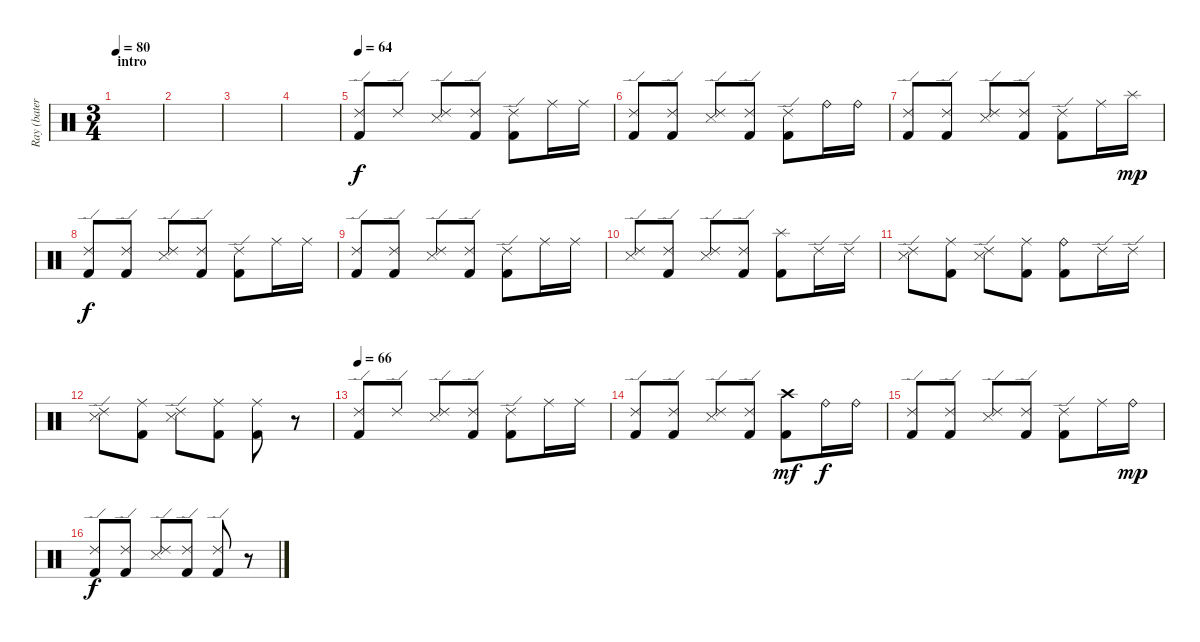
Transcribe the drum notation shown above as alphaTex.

\track ("Ray (batería)" "Ray (bater") {instrument percussion}
\staff {score}
\articulation defaults
\ts (3 4)
\section ("" "intro")
\tempo 80
\tempo 62
\tempo 80
\clef neutral
\ks c
|
|
|
|
\tempo 64
("Ride (edge) 2" "Kick (hit) 2").8{volume 12} "Ride (edge) 2".8 ("Ride (edge) 2" "Snare (side stick) 3").8 ("Ride (edge) 2" "Kick (hit) 2").8 ("Ride (edge) 2" "Kick (hit) 2").8 "Ride (middle)".16 "Ride (middle)".16 |
("Ride (edge) 2" "Kick (hit) 2").8 ("Ride (edge) 2" "Kick (hit) 2").8 ("Ride (edge) 2" "Snare (side stick) 3").8 ("Ride (edge) 2" "Kick (hit) 2").8 ("Ride (edge) 2" "Kick (hit) 2").8 "Ride (bell)".16 "Ride (bell)".16 |
("Ride (edge) 2" "Kick (hit) 2").8 ("Ride (edge) 2" "Kick (hit) 2").8 ("Ride (edge) 2" "Snare (side stick) 3").8 ("Ride (edge) 2" "Kick (hit) 2").8 ("Ride (edge) 2" "Kick (hit) 2").8 "Ride (middle)".16 "Splash (hit)".16{dy mp} |
("Ride (edge) 2" "Kick (hit) 2").8{dy f} ("Ride (edge) 2" "Kick (hit) 2").8 ("Ride (edge) 2" "Snare (side stick) 3").8 ("Ride (edge) 2" "Kick (hit) 2").8 ("Ride (edge) 2" "Kick (hit) 2").8 "Ride (middle)".16 "Ride (middle)".16 |
("Ride (edge) 2" "Kick (hit) 2").8 ("Ride (edge) 2" "Kick (hit) 2").8 ("Ride (edge) 2" "Snare (side stick) 3").8 ("Ride (edge) 2" "Kick (hit) 2").8 ("Ride (edge) 2" "Kick (hit) 2").8 "Ride (middle)".16 "Ride (middle)".16 |
("Ride (edge) 2" "Snare (side stick) 3").8 ("Ride (edge) 2" "Kick (hit) 2").8 ("Ride (edge) 2" "Snare (side stick) 3").8 ("Ride (edge) 2" "Kick (hit) 2").8 ("Splash (hit)" "Kick (hit) 2").8 "Ride (edge) 2".16 "Ride (edge) 2".16 |
("Ride (edge) 2" "Snare (side stick) 3").8 ("Ride (middle)" "Kick (hit) 2").8 ("Ride (edge) 2" "Snare (side stick) 3").8 ("Ride (middle)" "Kick (hit) 2").8 ("Ride (bell)" "Kick (hit) 2").8 "Ride (edge) 2".16 "Ride (edge) 2".16 |
("Ride (edge) 2" "Snare (side stick) 3").8 ("Ride (middle)" "Kick (hit) 2").8 ("Ride (edge) 2" "Snare (side stick) 3").8 ("Ride (middle)" "Kick (hit) 2").8 ("Ride (middle)" "Kick (hit) 2").8 r.8 |
\tempo 66
("Ride (edge) 2" "Kick (hit) 2").8 "Ride (edge) 2".8 ("Ride (edge) 2" "Snare (side stick) 3").8 ("Ride (edge) 2" "Kick (hit) 2").8 ("Ride (edge) 2" "Kick (hit) 2").8 "Ride (middle)".16 "Ride (middle)".16 |
("Ride (edge) 2" "Kick (hit) 2").8 ("Ride (edge) 2" "Kick (hit) 2").8 ("Ride (edge) 2" "Snare (side stick) 3").8 ("Ride (edge) 2" "Kick (hit) 2").8 ("Crash high (hit)" "Kick (hit) 2").8{dy mf} "Ride (bell)".16{dy f} "Ride (bell)".16 |
("Ride (edge) 2" "Kick (hit) 2").8 ("Ride (edge) 2" "Kick (hit) 2").8 ("Ride (edge) 2" "Snare (side stick) 3").8 ("Ride (edge) 2" "Kick (hit) 2").8 ("Ride (edge) 2" "Kick (hit) 2").8 "Ride (middle)".16 "Ride (bell)".16{dy mp} |
("Ride (edge) 2" "Kick (hit) 2").8{dy f} ("Ride (edge) 2" "Kick (hit) 2").8 ("Ride (edge) 2" "Snare (side stick) 3").8 ("Ride (edge) 2" "Kick (hit) 2").8 ("Ride (edge) 2" "Kick (hit) 2").8 r.8
